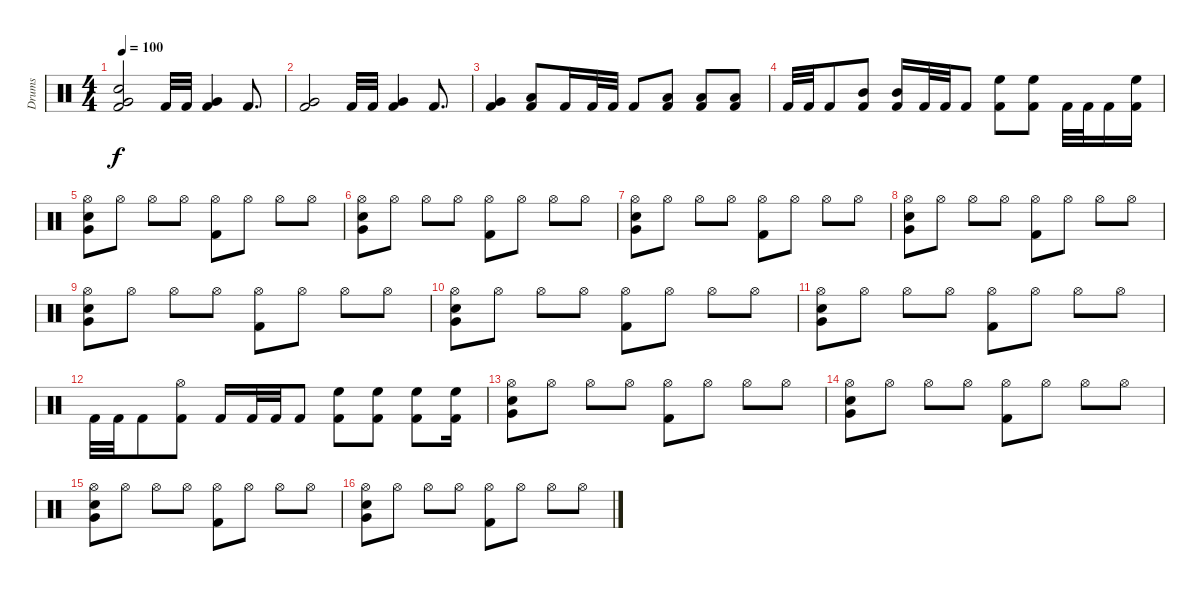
\track ("Drums" "Drums") {instrument percussion}
\staff {score}
\articulation defaults
\ts (4 4)
\tempo 100
\clef neutral
\ks c
("Kick (hit) 2" "Snare (hit) 2" "Very Low Tom (hit)").2{dy f} "Kick (hit) 2".32 "Kick (hit) 2".32 ("Very Low Tom (hit)" "Kick (hit) 2").4 "Kick (hit) 2".8{d} |
("Kick (hit) 2" "Very Low Tom (hit)").2 "Kick (hit) 2".32 "Kick (hit) 2".32 ("Very Low Tom (hit)" "Kick (hit) 2").4 "Kick (hit) 2".8{d} |
("Kick (hit) 2" "Very Low Tom (hit)").4 ("Low Tom (hit)" "Kick (hit) 2").8 "Kick (hit) 2".16 "Kick (hit) 2".32 "Kick (hit) 2".32 "Kick (hit) 2".8 ("Low Tom (hit)" "Kick (hit) 2").8 ("Low Tom (hit)" "Kick (hit) 2").8 ("Low Tom (hit)" "Kick (hit) 2").8 |
"Kick (hit) 2".32 "Kick (hit) 2".32 "Kick (hit) 2".8 ("Mid Tom (hit)" "Kick (hit) 2").8 ("Mid Tom (hit)" "Kick (hit) 2").16 "Kick (hit) 2".32 "Kick (hit) 2".32 "Kick (hit) 2".8 ("High Floor Tom (hit)" "Kick (hit) 2").8 ("High Floor Tom (hit)" "Kick (hit) 2").8 "Kick (hit) 2".32 "Kick (hit) 2".32 "Kick (hit) 2".16 ("High Floor Tom (hit)" "Kick (hit) 2").16 |
("Hi-Hat (open)" "Snare (hit) 2" "Very Low Tom (hit)").8 "Hi-Hat (open)".8 "Hi-Hat (open)".8 "Hi-Hat (open)".8 ("Hi-Hat (open)" "Kick (hit) 2").8 "Hi-Hat (open)".8 "Hi-Hat (open)".8 "Hi-Hat (open)".8 |
("Hi-Hat (open)" "Snare (hit) 2" "Very Low Tom (hit)").8 "Hi-Hat (open)".8 "Hi-Hat (open)".8 "Hi-Hat (open)".8 ("Hi-Hat (open)" "Kick (hit) 2").8 "Hi-Hat (open)".8 "Hi-Hat (open)".8 "Hi-Hat (open)".8 |
("Hi-Hat (open)" "Snare (hit) 2" "Very Low Tom (hit)").8 "Hi-Hat (open)".8 "Hi-Hat (open)".8 "Hi-Hat (open)".8 ("Hi-Hat (open)" "Kick (hit) 2").8 "Hi-Hat (open)".8 "Hi-Hat (open)".8 "Hi-Hat (open)".8 |
("Hi-Hat (open)" "Snare (hit) 2" "Very Low Tom (hit)").8 "Hi-Hat (open)".8 "Hi-Hat (open)".8 "Hi-Hat (open)".8 ("Hi-Hat (open)" "Kick (hit) 2").8 "Hi-Hat (open)".8 "Hi-Hat (open)".8 "Hi-Hat (open)".8 |
("Hi-Hat (open)" "Snare (hit) 2" "Very Low Tom (hit)").8 "Hi-Hat (open)".8 "Hi-Hat (open)".8 "Hi-Hat (open)".8 ("Hi-Hat (open)" "Kick (hit) 2").8 "Hi-Hat (open)".8 "Hi-Hat (open)".8 "Hi-Hat (open)".8 |
("Hi-Hat (open)" "Snare (hit) 2" "Very Low Tom (hit)").8 "Hi-Hat (open)".8 "Hi-Hat (open)".8 "Hi-Hat (open)".8 ("Hi-Hat (open)" "Kick (hit) 2").8 "Hi-Hat (open)".8 "Hi-Hat (open)".8 "Hi-Hat (open)".8 |
("Hi-Hat (open)" "Snare (hit) 2" "Very Low Tom (hit)").8 "Hi-Hat (open)".8 "Hi-Hat (open)".8 "Hi-Hat (open)".8 ("Hi-Hat (open)" "Kick (hit) 2").8 "Hi-Hat (open)".8 "Hi-Hat (open)".8 "Hi-Hat (open)".8 |
"Kick (hit) 2".32 "Kick (hit) 2".32 "Kick (hit) 2".8 ("Hi-Hat (open)" "Kick (hit) 2").8 "Kick (hit) 2".16 "Kick (hit) 2".32 "Kick (hit) 2".32 "Kick (hit) 2".8 ("High Floor Tom (hit)" "Kick (hit) 2").8 ("High Floor Tom (hit)" "Kick (hit) 2").8 ("High Floor Tom (hit)" "Kick (hit) 2").8 ("High Floor Tom (hit)" "Kick (hit) 2").16 |
("Hi-Hat (open)" "Snare (hit) 2" "Very Low Tom (hit)").8 "Hi-Hat (open)".8 "Hi-Hat (open)".8 "Hi-Hat (open)".8 ("Hi-Hat (open)" "Kick (hit) 2").8 "Hi-Hat (open)".8 "Hi-Hat (open)".8 "Hi-Hat (open)".8 |
("Hi-Hat (open)" "Snare (hit) 2" "Very Low Tom (hit)").8 "Hi-Hat (open)".8 "Hi-Hat (open)".8 "Hi-Hat (open)".8 ("Hi-Hat (open)" "Kick (hit) 2").8 "Hi-Hat (open)".8 "Hi-Hat (open)".8 "Hi-Hat (open)".8 |
("Hi-Hat (open)" "Snare (hit) 2" "Very Low Tom (hit)").8 "Hi-Hat (open)".8 "Hi-Hat (open)".8 "Hi-Hat (open)".8 ("Hi-Hat (open)" "Kick (hit) 2").8 "Hi-Hat (open)".8 "Hi-Hat (open)".8 "Hi-Hat (open)".8 |
("Hi-Hat (open)" "Snare (hit) 2" "Very Low Tom (hit)").8 "Hi-Hat (open)".8 "Hi-Hat (open)".8 "Hi-Hat (open)".8 ("Hi-Hat (open)" "Kick (hit) 2").8 "Hi-Hat (open)".8 "Hi-Hat (open)".8 "Hi-Hat (open)".8
